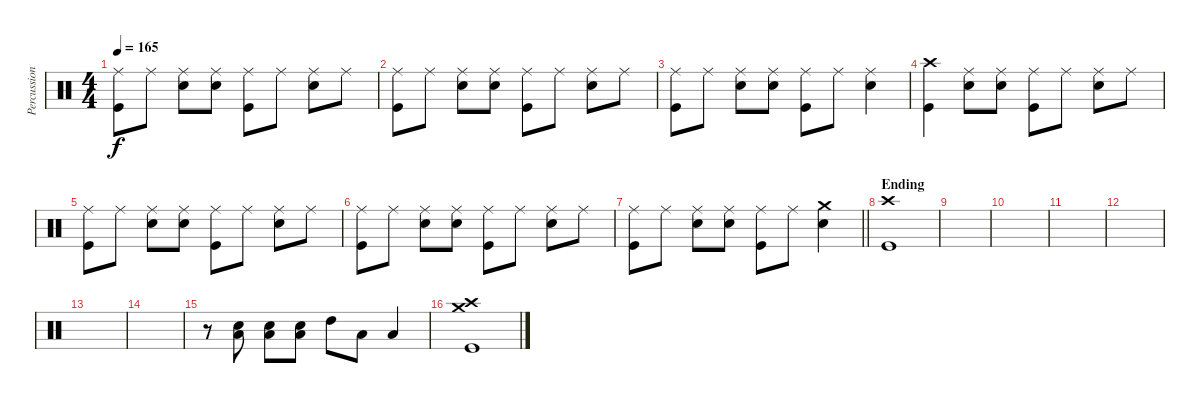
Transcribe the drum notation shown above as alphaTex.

\track ("Percussion" "Percussion") {instrument percussion}
\staff {score}
\articulation defaults
\ts (4 4)
\tempo 165
\clef neutral
\ks c
("Kick (hit)" "Ride (middle)").8{dy f} "Ride (middle)".8 ("Ride (middle)" "Snare (hit) 2").8 ("Ride (middle)" "Snare (hit) 2").8 ("Kick (hit)" "Ride (middle)").8 "Ride (middle)".8 ("Ride (middle)" "Snare (hit) 2").8 "Ride (middle)".8 |
("Kick (hit)" "Ride (middle)").8 "Ride (middle)".8 ("Ride (middle)" "Snare (hit) 2").8 ("Ride (middle)" "Snare (hit) 2").8 ("Kick (hit)" "Ride (middle)").8 "Ride (middle)".8 ("Ride (middle)" "Snare (hit) 2").8 "Ride (middle)".8 |
("Kick (hit)" "Ride (middle)").8 "Ride (middle)".8 ("Ride (middle)" "Snare (hit) 2").8 ("Ride (middle)" "Snare (hit) 2").8 ("Kick (hit)" "Ride (middle)").8 "Ride (middle)".8 ("Ride (middle)" "Snare (hit) 2").4 |
("Kick (hit)" "Crash high (hit)").4 ("Ride (middle)" "Snare (hit) 2").8 ("Ride (middle)" "Snare (hit) 2").8 ("Kick (hit)" "Ride (middle)").8 "Ride (middle)".8 ("Ride (middle)" "Snare (hit) 2").8 "Ride (middle)".8 |
("Kick (hit)" "Ride (middle)").8 "Ride (middle)".8 ("Ride (middle)" "Snare (hit) 2").8 ("Ride (middle)" "Snare (hit) 2").8 ("Kick (hit)" "Ride (middle)").8 "Ride (middle)".8 ("Ride (middle)" "Snare (hit) 2").8 "Ride (middle)".8 |
("Kick (hit)" "Ride (middle)").8 "Ride (middle)".8 ("Ride (middle)" "Snare (hit) 2").8 ("Ride (middle)" "Snare (hit) 2").8 ("Kick (hit)" "Ride (middle)").8 "Ride (middle)".8 ("Ride (middle)" "Snare (hit) 2").8 "Ride (middle)".8 |
\barLineRight lightlight
("Kick (hit)" "Ride (middle)").8 "Ride (middle)".8 ("Ride (middle)" "Snare (hit) 2").8 ("Ride (middle)" "Snare (hit) 2").8 ("Kick (hit)" "Ride (middle)").8 "Ride (middle)".8 ("Crash medium (hit)" "Snare (hit) 2").4 |
\section ("" "Ending")
("Kick (hit)" "Crash high (hit)").1 |
|
|
|
|
|
|
r.8 ("Low Floor Tom (hit)" "Snare (hit) 2").8 ("Low Floor Tom (hit)" "Snare (hit) 2").8 ("Low Floor Tom (hit)" "Snare (hit) 2").8 "High Tom (hit)".8 "Low Tom (hit)".8 "Low Floor Tom (hit)".4 |
("Crash medium (hit)" "Kick (hit)" "Crash high (hit)").1
